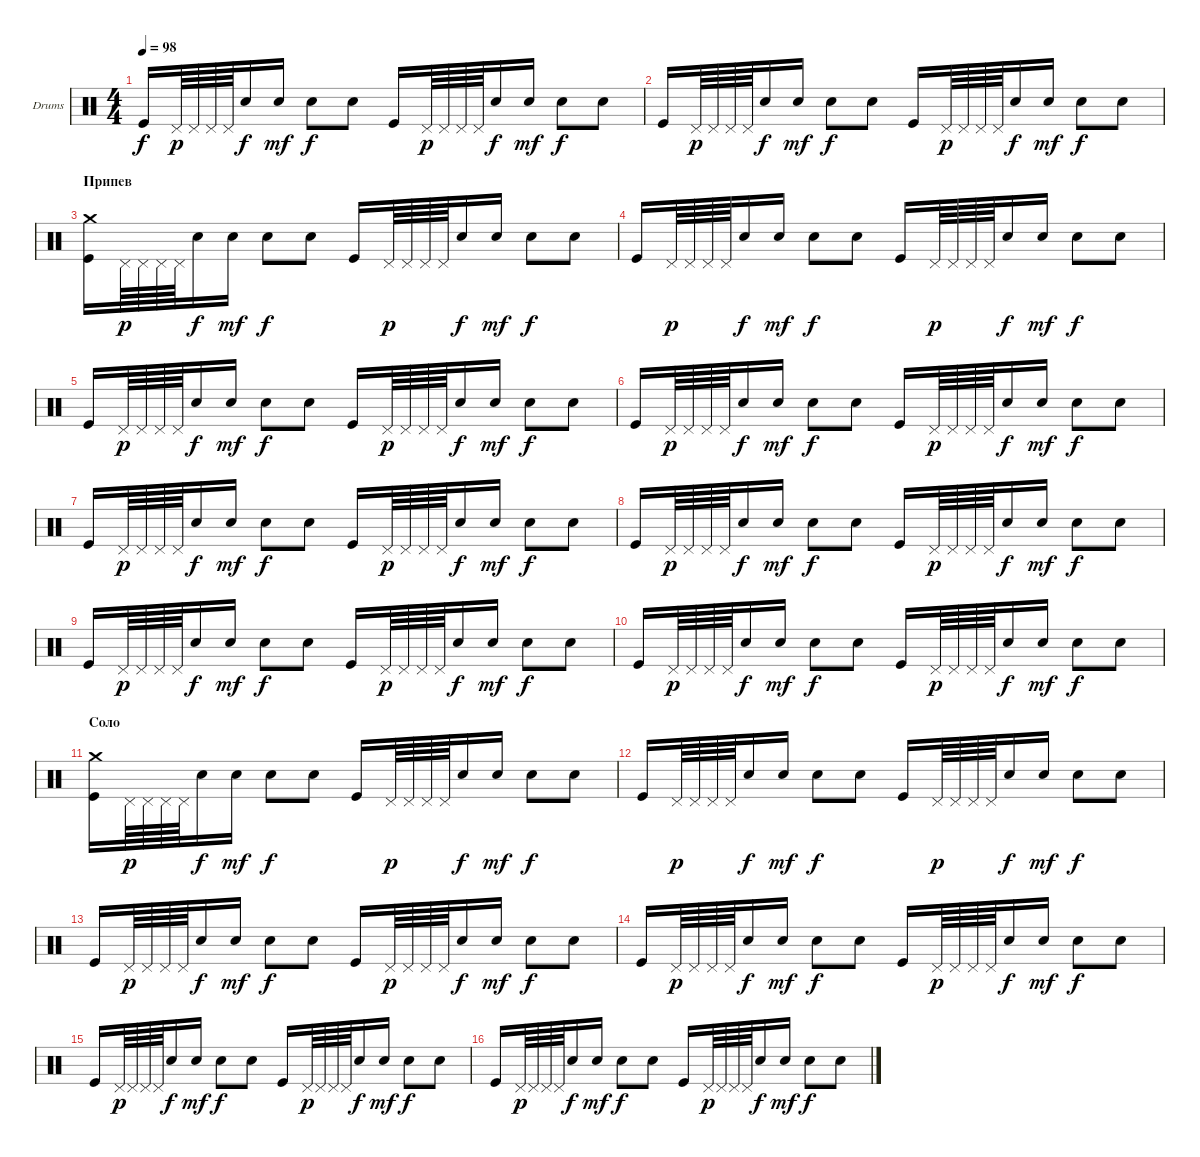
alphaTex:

\defaultSystemsLayout 4
\bracketExtendMode groupsimilarinstruments
\firstSystemTrackNameOrientation horizontal
\otherSystemsTrackNameOrientation horizontal
\track ("Е. Кулаков" "Drums") {instrument percussion}
\staff {score}
\articulation defaults
\ts (4 4)
\tempo 98
\clef neutral
\ks c "Kick (hit)".16{dy f} "Pedal Hi-Hat (hit)".64{dy p} "Pedal Hi-Hat (hit)".64 "Pedal Hi-Hat (hit)".64 "Pedal Hi-Hat (hit)".64 "Snare (hit) 2".16{dy f} "Snare (hit) 2".16{dy mf} "Snare (hit) 2".8{dy f} "Snare (hit) 2".8 "Kick (hit)".16 "Pedal Hi-Hat (hit)".64{dy p} "Pedal Hi-Hat (hit)".64 "Pedal Hi-Hat (hit)".64 "Pedal Hi-Hat (hit)".64 "Snare (hit) 2".16{dy f} "Snare (hit) 2".16{dy mf} "Snare (hit) 2".8{dy f} "Snare (hit) 2".8
|
"Kick (hit)".16 "Pedal Hi-Hat (hit)".64{dy p} "Pedal Hi-Hat (hit)".64 "Pedal Hi-Hat (hit)".64 "Pedal Hi-Hat (hit)".64 "Snare (hit) 2".16{dy f} "Snare (hit) 2".16{dy mf} "Snare (hit) 2".8{dy f} "Snare (hit) 2".8 "Kick (hit)".16 "Pedal Hi-Hat (hit)".64{dy p} "Pedal Hi-Hat (hit)".64 "Pedal Hi-Hat (hit)".64 "Pedal Hi-Hat (hit)".64 "Snare (hit) 2".16{dy f} "Snare (hit) 2".16{dy mf} "Snare (hit) 2".8{dy f} "Snare (hit) 2".8 |
\section ("" "Припев")
("Kick (hit)" "Crash medium (hit)").16 "Pedal Hi-Hat (hit)".64{dy p} "Pedal Hi-Hat (hit)".64 "Pedal Hi-Hat (hit)".64 "Pedal Hi-Hat (hit)".64 "Snare (hit) 2".16{dy f} "Snare (hit) 2".16{dy mf} "Snare (hit) 2".8{dy f} "Snare (hit) 2".8 "Kick (hit)".16 "Pedal Hi-Hat (hit)".64{dy p} "Pedal Hi-Hat (hit)".64 "Pedal Hi-Hat (hit)".64 "Pedal Hi-Hat (hit)".64 "Snare (hit) 2".16{dy f} "Snare (hit) 2".16{dy mf} "Snare (hit) 2".8{dy f} "Snare (hit) 2".8 |
"Kick (hit)".16 "Pedal Hi-Hat (hit)".64{dy p} "Pedal Hi-Hat (hit)".64 "Pedal Hi-Hat (hit)".64 "Pedal Hi-Hat (hit)".64 "Snare (hit) 2".16{dy f} "Snare (hit) 2".16{dy mf} "Snare (hit) 2".8{dy f} "Snare (hit) 2".8 "Kick (hit)".16 "Pedal Hi-Hat (hit)".64{dy p} "Pedal Hi-Hat (hit)".64 "Pedal Hi-Hat (hit)".64 "Pedal Hi-Hat (hit)".64 "Snare (hit) 2".16{dy f} "Snare (hit) 2".16{dy mf} "Snare (hit) 2".8{dy f} "Snare (hit) 2".8 |
"Kick (hit)".16 "Pedal Hi-Hat (hit)".64{dy p} "Pedal Hi-Hat (hit)".64 "Pedal Hi-Hat (hit)".64 "Pedal Hi-Hat (hit)".64 "Snare (hit) 2".16{dy f} "Snare (hit) 2".16{dy mf} "Snare (hit) 2".8{dy f} "Snare (hit) 2".8 "Kick (hit)".16 "Pedal Hi-Hat (hit)".64{dy p} "Pedal Hi-Hat (hit)".64 "Pedal Hi-Hat (hit)".64 "Pedal Hi-Hat (hit)".64 "Snare (hit) 2".16{dy f} "Snare (hit) 2".16{dy mf} "Snare (hit) 2".8{dy f} "Snare (hit) 2".8 |
"Kick (hit)".16 "Pedal Hi-Hat (hit)".64{dy p} "Pedal Hi-Hat (hit)".64 "Pedal Hi-Hat (hit)".64 "Pedal Hi-Hat (hit)".64 "Snare (hit) 2".16{dy f} "Snare (hit) 2".16{dy mf} "Snare (hit) 2".8{dy f} "Snare (hit) 2".8 "Kick (hit)".16 "Pedal Hi-Hat (hit)".64{dy p} "Pedal Hi-Hat (hit)".64 "Pedal Hi-Hat (hit)".64 "Pedal Hi-Hat (hit)".64 "Snare (hit) 2".16{dy f} "Snare (hit) 2".16{dy mf} "Snare (hit) 2".8{dy f} "Snare (hit) 2".8 |
"Kick (hit)".16 "Pedal Hi-Hat (hit)".64{dy p} "Pedal Hi-Hat (hit)".64 "Pedal Hi-Hat (hit)".64 "Pedal Hi-Hat (hit)".64 "Snare (hit) 2".16{dy f} "Snare (hit) 2".16{dy mf} "Snare (hit) 2".8{dy f} "Snare (hit) 2".8 "Kick (hit)".16 "Pedal Hi-Hat (hit)".64{dy p} "Pedal Hi-Hat (hit)".64 "Pedal Hi-Hat (hit)".64 "Pedal Hi-Hat (hit)".64 "Snare (hit) 2".16{dy f} "Snare (hit) 2".16{dy mf} "Snare (hit) 2".8{dy f} "Snare (hit) 2".8 |
"Kick (hit)".16 "Pedal Hi-Hat (hit)".64{dy p} "Pedal Hi-Hat (hit)".64 "Pedal Hi-Hat (hit)".64 "Pedal Hi-Hat (hit)".64 "Snare (hit) 2".16{dy f} "Snare (hit) 2".16{dy mf} "Snare (hit) 2".8{dy f} "Snare (hit) 2".8 "Kick (hit)".16 "Pedal Hi-Hat (hit)".64{dy p} "Pedal Hi-Hat (hit)".64 "Pedal Hi-Hat (hit)".64 "Pedal Hi-Hat (hit)".64 "Snare (hit) 2".16{dy f} "Snare (hit) 2".16{dy mf} "Snare (hit) 2".8{dy f} "Snare (hit) 2".8 |
"Kick (hit)".16 "Pedal Hi-Hat (hit)".64{dy p} "Pedal Hi-Hat (hit)".64 "Pedal Hi-Hat (hit)".64 "Pedal Hi-Hat (hit)".64 "Snare (hit) 2".16{dy f} "Snare (hit) 2".16{dy mf} "Snare (hit) 2".8{dy f} "Snare (hit) 2".8 "Kick (hit)".16 "Pedal Hi-Hat (hit)".64{dy p} "Pedal Hi-Hat (hit)".64 "Pedal Hi-Hat (hit)".64 "Pedal Hi-Hat (hit)".64 "Snare (hit) 2".16{dy f} "Snare (hit) 2".16{dy mf} "Snare (hit) 2".8{dy f} "Snare (hit) 2".8 |
"Kick (hit)".16 "Pedal Hi-Hat (hit)".64{dy p} "Pedal Hi-Hat (hit)".64 "Pedal Hi-Hat (hit)".64 "Pedal Hi-Hat (hit)".64 "Snare (hit) 2".16{dy f} "Snare (hit) 2".16{dy mf} "Snare (hit) 2".8{dy f} "Snare (hit) 2".8 "Kick (hit)".16 "Pedal Hi-Hat (hit)".64{dy p} "Pedal Hi-Hat (hit)".64 "Pedal Hi-Hat (hit)".64 "Pedal Hi-Hat (hit)".64 "Snare (hit) 2".16{dy f} "Snare (hit) 2".16{dy mf} "Snare (hit) 2".8{dy f} "Snare (hit) 2".8 |
\section ("" "Соло")
("Kick (hit)" "Crash medium (hit)").16 "Pedal Hi-Hat (hit)".64{dy p} "Pedal Hi-Hat (hit)".64 "Pedal Hi-Hat (hit)".64 "Pedal Hi-Hat (hit)".64 "Snare (hit) 2".16{dy f} "Snare (hit) 2".16{dy mf} "Snare (hit) 2".8{dy f} "Snare (hit) 2".8 "Kick (hit)".16 "Pedal Hi-Hat (hit)".64{dy p} "Pedal Hi-Hat (hit)".64 "Pedal Hi-Hat (hit)".64 "Pedal Hi-Hat (hit)".64 "Snare (hit) 2".16{dy f} "Snare (hit) 2".16{dy mf} "Snare (hit) 2".8{dy f} "Snare (hit) 2".8 |
"Kick (hit)".16 "Pedal Hi-Hat (hit)".64{dy p} "Pedal Hi-Hat (hit)".64 "Pedal Hi-Hat (hit)".64 "Pedal Hi-Hat (hit)".64 "Snare (hit) 2".16{dy f} "Snare (hit) 2".16{dy mf} "Snare (hit) 2".8{dy f} "Snare (hit) 2".8 "Kick (hit)".16 "Pedal Hi-Hat (hit)".64{dy p} "Pedal Hi-Hat (hit)".64 "Pedal Hi-Hat (hit)".64 "Pedal Hi-Hat (hit)".64 "Snare (hit) 2".16{dy f} "Snare (hit) 2".16{dy mf} "Snare (hit) 2".8{dy f} "Snare (hit) 2".8 |
"Kick (hit)".16 "Pedal Hi-Hat (hit)".64{dy p} "Pedal Hi-Hat (hit)".64 "Pedal Hi-Hat (hit)".64 "Pedal Hi-Hat (hit)".64 "Snare (hit) 2".16{dy f} "Snare (hit) 2".16{dy mf} "Snare (hit) 2".8{dy f} "Snare (hit) 2".8 "Kick (hit)".16 "Pedal Hi-Hat (hit)".64{dy p} "Pedal Hi-Hat (hit)".64 "Pedal Hi-Hat (hit)".64 "Pedal Hi-Hat (hit)".64 "Snare (hit) 2".16{dy f} "Snare (hit) 2".16{dy mf} "Snare (hit) 2".8{dy f} "Snare (hit) 2".8 |
"Kick (hit)".16 "Pedal Hi-Hat (hit)".64{dy p} "Pedal Hi-Hat (hit)".64 "Pedal Hi-Hat (hit)".64 "Pedal Hi-Hat (hit)".64 "Snare (hit) 2".16{dy f} "Snare (hit) 2".16{dy mf} "Snare (hit) 2".8{dy f} "Snare (hit) 2".8 "Kick (hit)".16 "Pedal Hi-Hat (hit)".64{dy p} "Pedal Hi-Hat (hit)".64 "Pedal Hi-Hat (hit)".64 "Pedal Hi-Hat (hit)".64 "Snare (hit) 2".16{dy f} "Snare (hit) 2".16{dy mf} "Snare (hit) 2".8{dy f} "Snare (hit) 2".8 |
"Kick (hit)".16 "Pedal Hi-Hat (hit)".64{dy p} "Pedal Hi-Hat (hit)".64 "Pedal Hi-Hat (hit)".64 "Pedal Hi-Hat (hit)".64 "Snare (hit) 2".16{dy f} "Snare (hit) 2".16{dy mf} "Snare (hit) 2".8{dy f} "Snare (hit) 2".8 "Kick (hit)".16 "Pedal Hi-Hat (hit)".64{dy p} "Pedal Hi-Hat (hit)".64 "Pedal Hi-Hat (hit)".64 "Pedal Hi-Hat (hit)".64 "Snare (hit) 2".16{dy f} "Snare (hit) 2".16{dy mf} "Snare (hit) 2".8{dy f} "Snare (hit) 2".8 |
"Kick (hit)".16 "Pedal Hi-Hat (hit)".64{dy p} "Pedal Hi-Hat (hit)".64 "Pedal Hi-Hat (hit)".64 "Pedal Hi-Hat (hit)".64 "Snare (hit) 2".16{dy f} "Snare (hit) 2".16{dy mf} "Snare (hit) 2".8{dy f} "Snare (hit) 2".8 "Kick (hit)".16 "Pedal Hi-Hat (hit)".64{dy p} "Pedal Hi-Hat (hit)".64 "Pedal Hi-Hat (hit)".64 "Pedal Hi-Hat (hit)".64 "Snare (hit) 2".16{dy f} "Snare (hit) 2".16{dy mf} "Snare (hit) 2".8{dy f} "Snare (hit) 2".8
